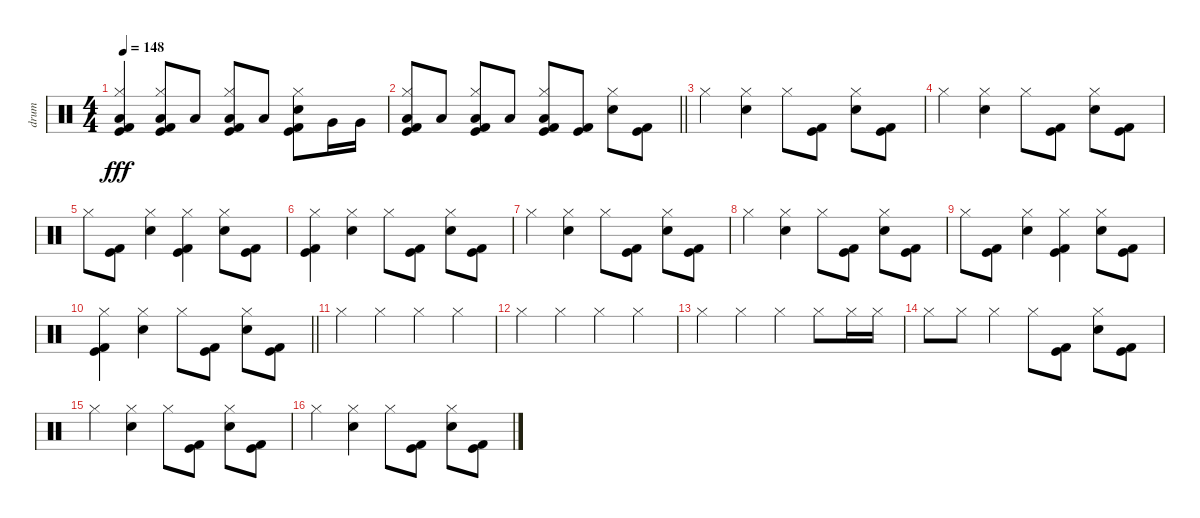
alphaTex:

\track ("drum" "drum") {instrument percussion}
\staff {score}
\articulation defaults
\ts (4 4)
\tempo 148
\clef neutral
\ks c
("Low Floor Tom (hit)" "Hi-Hat (closed)" "Kick (hit)" "Kick (hit) 2").4{dy fff} ("Low Floor Tom (hit)" "Hi-Hat (closed)" "Kick (hit)" "Kick (hit) 2").8 "Low Tom (hit)".8 ("Low Floor Tom (hit)" "Hi-Hat (closed)" "Kick (hit)" "Kick (hit) 2").8 "Low Floor Tom (hit)".8 ("Snare (hit) 2" "Hi-Hat (closed)" "Kick (hit)" "Kick (hit) 2").8 "Very Low Tom (hit)".16 "Very Low Tom (hit)".16 |
\barLineRight lightlight
("Low Floor Tom (hit)" "Hi-Hat (closed)" "Kick (hit)" "Kick (hit) 2").8 "Low Floor Tom (hit)".8 ("Low Floor Tom (hit)" "Hi-Hat (closed)" "Kick (hit)" "Kick (hit) 2").8 "Low Floor Tom (hit)".8 ("Low Floor Tom (hit)" "Hi-Hat (closed)" "Kick (hit)" "Kick (hit) 2").8 ("Kick (hit)" "Kick (hit) 2").8 ("Snare (hit) 2" "Hi-Hat (closed)").8 ("Kick (hit)" "Kick (hit) 2").8 |
\section ("" "")
"Hi-Hat (closed)".4 ("Snare (hit) 2" "Hi-Hat (closed)").4 "Hi-Hat (closed)".8 ("Kick (hit)" "Kick (hit) 2").8 ("Snare (hit) 2" "Hi-Hat (closed)").8 ("Kick (hit)" "Kick (hit) 2").8 |
"Hi-Hat (closed)".4 ("Snare (hit) 2" "Hi-Hat (closed)").4 "Hi-Hat (closed)".8 ("Kick (hit)" "Kick (hit) 2").8 ("Snare (hit) 2" "Hi-Hat (closed)").8 ("Kick (hit)" "Kick (hit) 2").8 |
"Hi-Hat (closed)".8 ("Kick (hit)" "Kick (hit) 2").8 ("Snare (hit) 2" "Hi-Hat (closed)").4 ("Hi-Hat (closed)" "Kick (hit)" "Kick (hit) 2").4 ("Snare (hit) 2" "Hi-Hat (closed)").8 ("Kick (hit)" "Kick (hit) 2").8 |
("Hi-Hat (closed)" "Kick (hit)" "Kick (hit) 2").4 ("Snare (hit) 2" "Hi-Hat (closed)").4 "Hi-Hat (closed)".8 ("Kick (hit)" "Kick (hit) 2").8 ("Snare (hit) 2" "Hi-Hat (closed)").8 ("Kick (hit)" "Kick (hit) 2").8 |
"Hi-Hat (closed)".4 ("Snare (hit) 2" "Hi-Hat (closed)").4 "Hi-Hat (closed)".8 ("Kick (hit)" "Kick (hit) 2").8 ("Snare (hit) 2" "Hi-Hat (closed)").8 ("Kick (hit)" "Kick (hit) 2").8 |
"Hi-Hat (closed)".4 ("Snare (hit) 2" "Hi-Hat (closed)").4 "Hi-Hat (closed)".8 ("Kick (hit)" "Kick (hit) 2").8 ("Snare (hit) 2" "Hi-Hat (closed)").8 ("Kick (hit)" "Kick (hit) 2").8 |
"Hi-Hat (closed)".8 ("Kick (hit)" "Kick (hit) 2").8 ("Snare (hit) 2" "Hi-Hat (closed)").4 ("Hi-Hat (closed)" "Kick (hit)" "Kick (hit) 2").4 ("Snare (hit) 2" "Hi-Hat (closed)").8 ("Kick (hit)" "Kick (hit) 2").8 |
\barLineRight lightlight
("Hi-Hat (closed)" "Kick (hit)" "Kick (hit) 2").4 ("Snare (hit) 2" "Hi-Hat (closed)").4 "Hi-Hat (closed)".8 ("Kick (hit)" "Kick (hit) 2").8 ("Snare (hit) 2" "Hi-Hat (closed)").8 ("Kick (hit)" "Kick (hit) 2").8 |
\section ("" "")
"Hi-Hat (closed)".4 "Hi-Hat (closed)".4 "Hi-Hat (closed)".4 "Hi-Hat (closed)".4 |
"Hi-Hat (closed)".4 "Hi-Hat (closed)".4 "Hi-Hat (closed)".4 "Hi-Hat (closed)".4 |
"Hi-Hat (closed)".4 "Hi-Hat (closed)".4 "Hi-Hat (closed)".4 "Hi-Hat (closed)".8 "Hi-Hat (closed)".16 "Hi-Hat (closed)".16 |
"Hi-Hat (closed)".8 "Hi-Hat (closed)".8 "Hi-Hat (closed)".4 "Hi-Hat (closed)".8 ("Kick (hit)" "Kick (hit) 2").8 ("Snare (hit) 2" "Hi-Hat (closed)").8 ("Kick (hit)" "Kick (hit) 2").8 |
"Hi-Hat (closed)".4 ("Snare (hit) 2" "Hi-Hat (closed)").4 "Hi-Hat (closed)".8 ("Kick (hit)" "Kick (hit) 2").8 ("Snare (hit) 2" "Hi-Hat (closed)").8 ("Kick (hit)" "Kick (hit) 2").8 |
"Hi-Hat (closed)".4 ("Snare (hit) 2" "Hi-Hat (closed)").4 "Hi-Hat (closed)".8 ("Kick (hit)" "Kick (hit) 2").8 ("Snare (hit) 2" "Hi-Hat (closed)").8 ("Kick (hit)" "Kick (hit) 2").8
